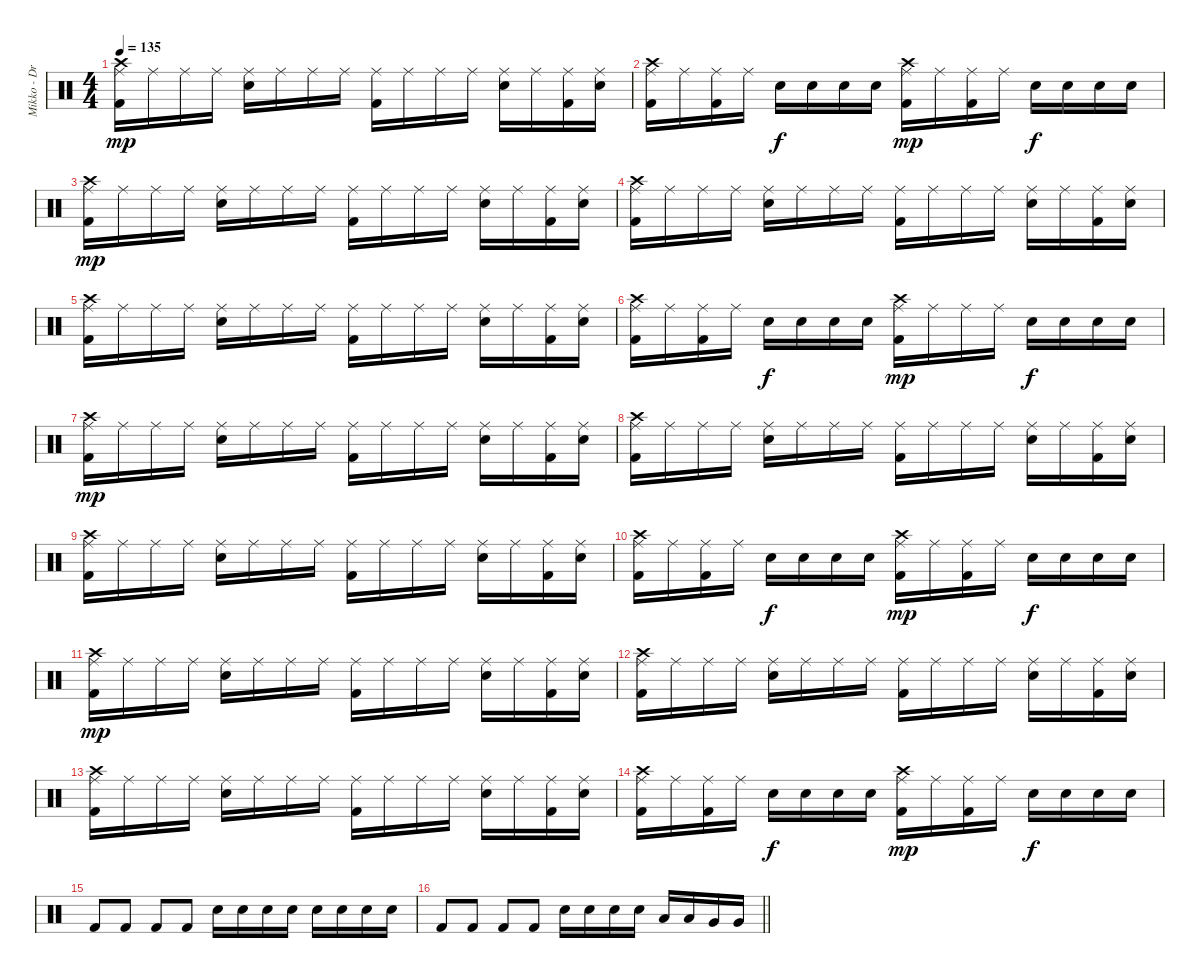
\track ("Mikko - Drums" "Mikko - Dr") {instrument percussion}
\staff {score}
\articulation defaults
\ts (4 4)
\tempo 135
\clef neutral
\ks c
("Ride (middle)" "Crash high (hit)" "Kick (hit) 2").16{dy mp} "Ride (middle)".16 "Ride (middle)".16 "Ride (middle)".16 ("Ride (middle)" "Snare (hit) 2").16 "Ride (middle)".16 "Ride (middle)".16 "Ride (middle)".16 ("Ride (middle)" "Kick (hit) 2").16 "Ride (middle)".16 "Ride (middle)".16 "Ride (middle)".16 ("Ride (middle)" "Snare (hit) 2").16 "Ride (middle)".16 ("Ride (middle)" "Kick (hit) 2").16 ("Ride (middle)" "Snare (hit) 2").16 |
("Ride (middle)" "Crash high (hit)" "Kick (hit) 2").16 "Ride (middle)".16 ("Ride (middle)" "Kick (hit) 2").16 "Ride (middle)".16 "Snare (hit) 2".16{dy f} "Snare (hit) 2".16 "Snare (hit) 2".16 "Snare (hit) 2".16 ("Ride (middle)" "Crash high (hit)" "Kick (hit) 2").16{dy mp} "Ride (middle)".16 ("Ride (middle)" "Kick (hit) 2").16 "Ride (middle)".16 "Snare (hit) 2".16{dy f} "Snare (hit) 2".16 "Snare (hit) 2".16 "Snare (hit) 2".16 |
("Ride (middle)" "Crash high (hit)" "Kick (hit) 2").16{dy mp} "Ride (middle)".16 "Ride (middle)".16 "Ride (middle)".16 ("Ride (middle)" "Snare (hit) 2").16 "Ride (middle)".16 "Ride (middle)".16 "Ride (middle)".16 ("Ride (middle)" "Kick (hit) 2").16 "Ride (middle)".16 "Ride (middle)".16 "Ride (middle)".16 ("Ride (middle)" "Snare (hit) 2").16 "Ride (middle)".16 ("Ride (middle)" "Kick (hit) 2").16 ("Ride (middle)" "Snare (hit) 2").16 |
("Ride (middle)" "Crash high (hit)" "Kick (hit) 2").16 "Ride (middle)".16 "Ride (middle)".16 "Ride (middle)".16 ("Ride (middle)" "Snare (hit) 2").16 "Ride (middle)".16 "Ride (middle)".16 "Ride (middle)".16 ("Ride (middle)" "Kick (hit) 2").16 "Ride (middle)".16 "Ride (middle)".16 "Ride (middle)".16 ("Ride (middle)" "Snare (hit) 2").16 "Ride (middle)".16 ("Ride (middle)" "Kick (hit) 2").16 ("Ride (middle)" "Snare (hit) 2").16 |
("Ride (middle)" "Crash high (hit)" "Kick (hit) 2").16 "Ride (middle)".16 "Ride (middle)".16 "Ride (middle)".16 ("Ride (middle)" "Snare (hit) 2").16 "Ride (middle)".16 "Ride (middle)".16 "Ride (middle)".16 ("Ride (middle)" "Kick (hit) 2").16 "Ride (middle)".16 "Ride (middle)".16 "Ride (middle)".16 ("Ride (middle)" "Snare (hit) 2").16 "Ride (middle)".16 ("Ride (middle)" "Kick (hit) 2").16 ("Ride (middle)" "Snare (hit) 2").16 |
("Ride (middle)" "Crash high (hit)" "Kick (hit) 2").16 "Ride (middle)".16 ("Ride (middle)" "Kick (hit) 2").16 "Ride (middle)".16 "Snare (hit) 2".16{dy f} "Snare (hit) 2".16 "Snare (hit) 2".16 "Snare (hit) 2".16 ("Ride (middle)" "Crash high (hit)" "Kick (hit) 2").16{dy mp} "Ride (middle)".16 "Ride (middle)".16 "Ride (middle)".16 "Snare (hit) 2".16{dy f} "Snare (hit) 2".16 "Snare (hit) 2".16 "Snare (hit) 2".16 |
("Ride (middle)" "Crash high (hit)" "Kick (hit) 2").16{dy mp} "Ride (middle)".16 "Ride (middle)".16 "Ride (middle)".16 ("Ride (middle)" "Snare (hit) 2").16 "Ride (middle)".16 "Ride (middle)".16 "Ride (middle)".16 ("Ride (middle)" "Kick (hit) 2").16 "Ride (middle)".16 "Ride (middle)".16 "Ride (middle)".16 ("Ride (middle)" "Snare (hit) 2").16 "Ride (middle)".16 ("Ride (middle)" "Kick (hit) 2").16 ("Ride (middle)" "Snare (hit) 2").16 |
("Ride (middle)" "Crash high (hit)" "Kick (hit) 2").16 "Ride (middle)".16 "Ride (middle)".16 "Ride (middle)".16 ("Ride (middle)" "Snare (hit) 2").16 "Ride (middle)".16 "Ride (middle)".16 "Ride (middle)".16 ("Ride (middle)" "Kick (hit) 2").16 "Ride (middle)".16 "Ride (middle)".16 "Ride (middle)".16 ("Ride (middle)" "Snare (hit) 2").16 "Ride (middle)".16 ("Ride (middle)" "Kick (hit) 2").16 ("Ride (middle)" "Snare (hit) 2").16 |
("Ride (middle)" "Crash high (hit)" "Kick (hit) 2").16 "Ride (middle)".16 "Ride (middle)".16 "Ride (middle)".16 ("Ride (middle)" "Snare (hit) 2").16 "Ride (middle)".16 "Ride (middle)".16 "Ride (middle)".16 ("Ride (middle)" "Kick (hit) 2").16 "Ride (middle)".16 "Ride (middle)".16 "Ride (middle)".16 ("Ride (middle)" "Snare (hit) 2").16 "Ride (middle)".16 ("Ride (middle)" "Kick (hit) 2").16 ("Ride (middle)" "Snare (hit) 2").16 |
("Ride (middle)" "Crash high (hit)" "Kick (hit) 2").16 "Ride (middle)".16 ("Ride (middle)" "Kick (hit) 2").16 "Ride (middle)".16 "Snare (hit) 2".16{dy f} "Snare (hit) 2".16 "Snare (hit) 2".16 "Snare (hit) 2".16 ("Ride (middle)" "Crash high (hit)" "Kick (hit) 2").16{dy mp} "Ride (middle)".16 ("Ride (middle)" "Kick (hit) 2").16 "Ride (middle)".16 "Snare (hit) 2".16{dy f} "Snare (hit) 2".16 "Snare (hit) 2".16 "Snare (hit) 2".16 |
("Ride (middle)" "Crash high (hit)" "Kick (hit) 2").16{dy mp} "Ride (middle)".16 "Ride (middle)".16 "Ride (middle)".16 ("Ride (middle)" "Snare (hit) 2").16 "Ride (middle)".16 "Ride (middle)".16 "Ride (middle)".16 ("Ride (middle)" "Kick (hit) 2").16 "Ride (middle)".16 "Ride (middle)".16 "Ride (middle)".16 ("Ride (middle)" "Snare (hit) 2").16 "Ride (middle)".16 ("Ride (middle)" "Kick (hit) 2").16 ("Ride (middle)" "Snare (hit) 2").16 |
("Ride (middle)" "Crash high (hit)" "Kick (hit) 2").16 "Ride (middle)".16 "Ride (middle)".16 "Ride (middle)".16 ("Ride (middle)" "Snare (hit) 2").16 "Ride (middle)".16 "Ride (middle)".16 "Ride (middle)".16 ("Ride (middle)" "Kick (hit) 2").16 "Ride (middle)".16 "Ride (middle)".16 "Ride (middle)".16 ("Ride (middle)" "Snare (hit) 2").16 "Ride (middle)".16 ("Ride (middle)" "Kick (hit) 2").16 ("Ride (middle)" "Snare (hit) 2").16 |
("Ride (middle)" "Crash high (hit)" "Kick (hit) 2").16 "Ride (middle)".16 "Ride (middle)".16 "Ride (middle)".16 ("Ride (middle)" "Snare (hit) 2").16 "Ride (middle)".16 "Ride (middle)".16 "Ride (middle)".16 ("Ride (middle)" "Kick (hit) 2").16 "Ride (middle)".16 "Ride (middle)".16 "Ride (middle)".16 ("Ride (middle)" "Snare (hit) 2").16 "Ride (middle)".16 ("Ride (middle)" "Kick (hit) 2").16 ("Ride (middle)" "Snare (hit) 2").16 |
("Ride (middle)" "Crash high (hit)" "Kick (hit) 2").16 "Ride (middle)".16 ("Ride (middle)" "Kick (hit) 2").16 "Ride (middle)".16 "Snare (hit) 2".16{dy f} "Snare (hit) 2".16 "Snare (hit) 2".16 "Snare (hit) 2".16 ("Ride (middle)" "Crash high (hit)" "Kick (hit) 2").16{dy mp} "Ride (middle)".16 ("Ride (middle)" "Kick (hit) 2").16 "Ride (middle)".16 "Snare (hit) 2".16{dy f} "Snare (hit) 2".16 "Snare (hit) 2".16 "Snare (hit) 2".16 |
"Kick (hit) 2".8 "Kick (hit) 2".8 "Kick (hit) 2".8 "Kick (hit) 2".8 "Electric Snare (hit)".16 "Electric Snare (hit)".16 "Electric Snare (hit)".16 "Electric Snare (hit)".16 "Electric Snare (hit)".16 "Electric Snare (hit)".16 "Electric Snare (hit)".16 "Electric Snare (hit)".16 |
\barLineRight lightlight "Kick (hit) 2".8 "Kick (hit) 2".8 "Kick (hit) 2".8 "Kick (hit) 2".8 "Electric Snare (hit)".16 "Electric Snare (hit)".16 "Electric Snare (hit)".16 "Electric Snare (hit)".16 "Low Tom (hit)".16 "Low Tom (hit)".16 "Very Low Tom (hit)".16 "Very Low Tom (hit)".16
